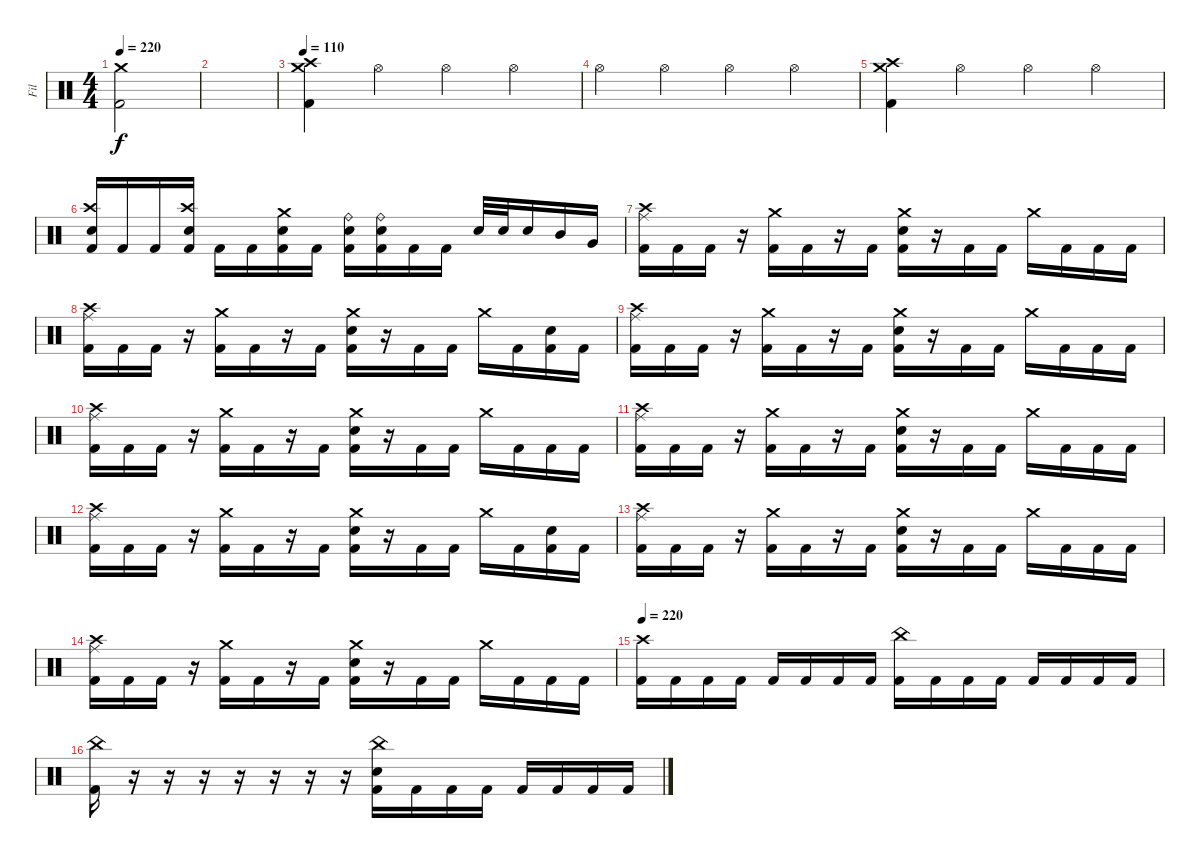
\track ("Fil" "Fil") {instrument percussion}
\staff {score}
\articulation defaults
\ts (4 4)
\tempo 220
\clef neutral
\ks c
("Crash medium (hit)" "Kick (hit) 2").2{dy f} |
|
\tempo 110
("Crash medium (hit)" "Crash high (hit)" "Kick (hit) 2").4 "Hi-Hat (open)".4 "Hi-Hat (open)".4 "Hi-Hat (open)".4 |
"Hi-Hat (open)".4 "Hi-Hat (open)".4 "Hi-Hat (open)".4 "Hi-Hat (open)".4 |
("Crash medium (hit)" "Crash high (hit)" "Kick (hit) 2").4 "Hi-Hat (open)".4 "Hi-Hat (open)".4 "Hi-Hat (open)".4 |
("Crash high (hit)" "Electric Snare (hit)" "Kick (hit) 2").16 "Kick (hit) 2".16 "Kick (hit) 2".16 ("Crash high (hit)" "Electric Snare (hit)" "Kick (hit) 2").16 "Kick (hit) 2".16 "Kick (hit) 2".16 ("Crash medium (hit)" "Electric Snare (hit)" "Kick (hit) 2").16 "Kick (hit) 2".16 ("Ride (bell)" "Electric Snare (hit)" "Kick (hit) 2").16 ("Ride (bell)" "Electric Snare (hit)" "Kick (hit) 2").16 "Kick (hit) 2".16 "Kick (hit) 2".16 "Electric Snare (hit)".32 "Electric Snare (hit)".32 "Electric Snare (hit)".16 "Mid Tom (hit)".16 "Very Low Tom (hit)".16 |
("Crash high (hit)" "Ride (middle)" "Kick (hit) 2").16 "Kick (hit) 2".16 "Kick (hit) 2".16 r.16 ("Crash medium (hit)" "Kick (hit) 2").16 "Kick (hit) 2".16 r.16 "Kick (hit) 2".16 ("Crash medium (hit)" "Electric Snare (hit)" "Kick (hit) 2").16 r.16 "Kick (hit) 2".16 "Kick (hit) 2".16 "Crash medium (hit)".16 "Kick (hit) 2".16 "Kick (hit) 2".16 "Kick (hit) 2".16 |
("Crash high (hit)" "Ride (middle)" "Kick (hit) 2").16 "Kick (hit) 2".16 "Kick (hit) 2".16 r.16 ("Crash medium (hit)" "Kick (hit) 2").16 "Kick (hit) 2".16 r.16 "Kick (hit) 2".16 ("Crash medium (hit)" "Electric Snare (hit)" "Kick (hit) 2").16 r.16 "Kick (hit) 2".16 "Kick (hit) 2".16 "Crash medium (hit)".16 "Kick (hit) 2".16 ("Electric Snare (hit)" "Kick (hit) 2").16 "Kick (hit) 2".16 |
("Crash high (hit)" "Ride (middle)" "Kick (hit) 2").16 "Kick (hit) 2".16 "Kick (hit) 2".16 r.16 ("Crash medium (hit)" "Kick (hit) 2").16 "Kick (hit) 2".16 r.16 "Kick (hit) 2".16 ("Crash medium (hit)" "Electric Snare (hit)" "Kick (hit) 2").16 r.16 "Kick (hit) 2".16 "Kick (hit) 2".16 "Crash medium (hit)".16 "Kick (hit) 2".16 "Kick (hit) 2".16 "Kick (hit) 2".16 |
("Crash high (hit)" "Ride (middle)" "Kick (hit) 2").16 "Kick (hit) 2".16 "Kick (hit) 2".16 r.16 ("Crash medium (hit)" "Kick (hit) 2").16 "Kick (hit) 2".16 r.16 "Kick (hit) 2".16 ("Crash medium (hit)" "Electric Snare (hit)" "Kick (hit) 2").16 r.16 "Kick (hit) 2".16 "Kick (hit) 2".16 "Crash medium (hit)".16 "Kick (hit) 2".16 "Kick (hit) 2".16 "Kick (hit) 2".16 |
("Crash high (hit)" "Ride (middle)" "Kick (hit) 2").16 "Kick (hit) 2".16 "Kick (hit) 2".16 r.16 ("Crash medium (hit)" "Kick (hit) 2").16 "Kick (hit) 2".16 r.16 "Kick (hit) 2".16 ("Crash medium (hit)" "Electric Snare (hit)" "Kick (hit) 2").16 r.16 "Kick (hit) 2".16 "Kick (hit) 2".16 "Crash medium (hit)".16 "Kick (hit) 2".16 "Kick (hit) 2".16 "Kick (hit) 2".16 |
("Crash high (hit)" "Ride (middle)" "Kick (hit) 2").16 "Kick (hit) 2".16 "Kick (hit) 2".16 r.16 ("Crash medium (hit)" "Kick (hit) 2").16 "Kick (hit) 2".16 r.16 "Kick (hit) 2".16 ("Crash medium (hit)" "Electric Snare (hit)" "Kick (hit) 2").16 r.16 "Kick (hit) 2".16 "Kick (hit) 2".16 "Crash medium (hit)".16 "Kick (hit) 2".16 ("Electric Snare (hit)" "Kick (hit) 2").16 "Kick (hit) 2".16 |
("Crash high (hit)" "Ride (middle)" "Kick (hit) 2").16 "Kick (hit) 2".16 "Kick (hit) 2".16 r.16 ("Crash medium (hit)" "Kick (hit) 2").16 "Kick (hit) 2".16 r.16 "Kick (hit) 2".16 ("Crash medium (hit)" "Electric Snare (hit)" "Kick (hit) 2").16 r.16 "Kick (hit) 2".16 "Kick (hit) 2".16 "Crash medium (hit)".16 "Kick (hit) 2".16 "Kick (hit) 2".16 "Kick (hit) 2".16 |
("Crash high (hit)" "Ride (middle)" "Kick (hit) 2").16 "Kick (hit) 2".16 "Kick (hit) 2".16 r.16 ("Crash medium (hit)" "Kick (hit) 2").16 "Kick (hit) 2".16 r.16 "Kick (hit) 2".16 ("Crash medium (hit)" "Electric Snare (hit)" "Kick (hit) 2").16 r.16 "Kick (hit) 2".16 "Kick (hit) 2".16 "Crash medium (hit)".16 "Kick (hit) 2".16 "Kick (hit) 2".16 "Kick (hit) 2".16 |
\tempo 220
("Crash high (hit)" "Kick (hit) 2").16 "Kick (hit) 2".16 "Kick (hit) 2".16 "Kick (hit) 2".16 "Kick (hit) 2".16 "Kick (hit) 2".16 "Kick (hit) 2".16 "Kick (hit) 2".16 ("China (hit)" "Kick (hit) 2").16 "Kick (hit) 2".16 "Kick (hit) 2".16 "Kick (hit) 2".16 "Kick (hit) 2".16 "Kick (hit) 2".16 "Kick (hit) 2".16 "Kick (hit) 2".16 |
("China (hit)" "Kick (hit) 2").16 r.16 r.16 r.16 r.16 r.16 r.16 r.16 ("China (hit)" "Electric Snare (hit)" "Kick (hit) 2").16 "Kick (hit) 2".16 "Kick (hit) 2".16 "Kick (hit) 2".16 "Kick (hit) 2".16 "Kick (hit) 2".16 "Kick (hit) 2".16 "Kick (hit) 2".16
